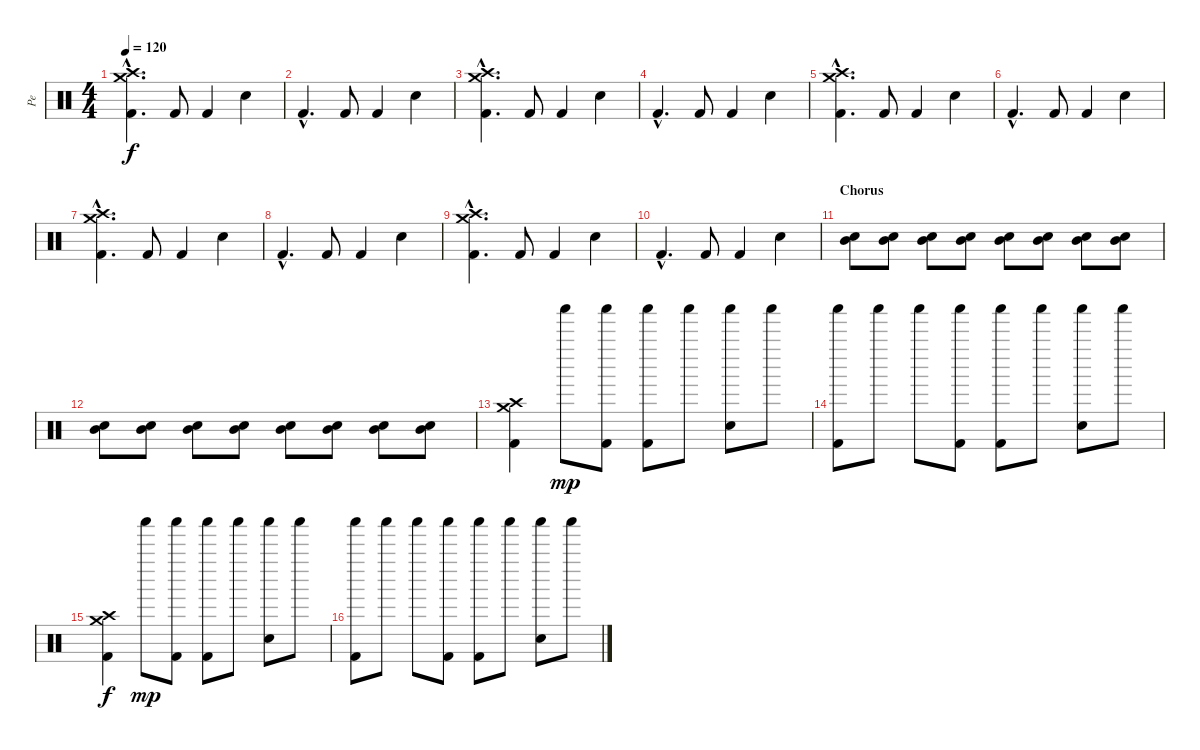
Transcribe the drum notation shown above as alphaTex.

\track ("Pe" "Pe") {instrument percussion}
\staff {score}
\articulation defaults
\ts (4 4)
\tempo 120
\clef neutral
\ks c
("Crash high (hit)"{hac} "Crash medium (hit)"{hac} "Kick (hit) 2"{hac}).4{d dy f} "Kick (hit) 2".8 "Kick (hit) 2".4 "Electric Snare (hit)".4 |
"Kick (hit) 2"{hac}.4{d} "Kick (hit) 2".8 "Kick (hit) 2".4 "Electric Snare (hit)".4 |
("Crash high (hit)"{hac} "Crash medium (hit)"{hac} "Kick (hit) 2"{hac}).4{d} "Kick (hit) 2".8 "Kick (hit) 2".4 "Electric Snare (hit)".4 |
"Kick (hit) 2"{hac}.4{d} "Kick (hit) 2".8 "Kick (hit) 2".4 "Electric Snare (hit)".4 |
("Crash high (hit)"{hac} "Crash medium (hit)"{hac} "Kick (hit) 2"{hac}).4{d} "Kick (hit) 2".8 "Kick (hit) 2".4 "Electric Snare (hit)".4 |
"Kick (hit) 2"{hac}.4{d} "Kick (hit) 2".8 "Kick (hit) 2".4 "Electric Snare (hit)".4 |
("Crash high (hit)"{hac} "Crash medium (hit)"{hac} "Kick (hit) 2"{hac}).4{d} "Kick (hit) 2".8 "Kick (hit) 2".4 "Electric Snare (hit)".4 |
"Kick (hit) 2"{hac}.4{d} "Kick (hit) 2".8 "Kick (hit) 2".4 "Electric Snare (hit)".4 |
("Crash high (hit)"{hac} "Crash medium (hit)"{hac} "Kick (hit) 2"{hac}).4{d} "Kick (hit) 2".8 "Kick (hit) 2".4 "Electric Snare (hit)".4 |
"Kick (hit) 2"{hac}.4{d} "Kick (hit) 2".8 "Kick (hit) 2".4 "Electric Snare (hit)".4 |
\section ("" "Chorus")
("Mid Tom (hit)" "Snare (hit) 2").8 ("Mid Tom (hit)" "Snare (hit) 2").8 ("Mid Tom (hit)" "Snare (hit) 2").8 ("Mid Tom (hit)" "Snare (hit) 2").8 ("Mid Tom (hit)" "Snare (hit) 2").8 ("Mid Tom (hit)" "Snare (hit) 2").8 ("Mid Tom (hit)" "Snare (hit) 2").8 ("Mid Tom (hit)" "Snare (hit) 2").8 |
("Mid Tom (hit)" "Snare (hit) 2").8 ("Mid Tom (hit)" "Snare (hit) 2").8 ("Mid Tom (hit)" "Snare (hit) 2").8 ("Mid Tom (hit)" "Snare (hit) 2").8 ("Mid Tom (hit)" "Snare (hit) 2").8 ("Mid Tom (hit)" "Snare (hit) 2").8 ("Mid Tom (hit)" "Snare (hit) 2").8 ("Mid Tom (hit)" "Snare (hit) 2").8 |
("Crash high (hit)" "Crash medium (hit)" "Kick (hit) 2").4 "Shaker (hit)".8{dy mp} ("Shaker (hit)" "Kick (hit) 2").8 ("Shaker (hit)" "Kick (hit) 2").8 "Shaker (hit)".8 ("Shaker (hit)" "Electric Snare (hit)").8 "Shaker (hit)".8 |
("Shaker (hit)" "Kick (hit) 2").8 "Shaker (hit)".8 "Shaker (hit)".8 ("Shaker (hit)" "Kick (hit) 2").8 ("Shaker (hit)" "Kick (hit) 2").8 "Shaker (hit)".8 ("Shaker (hit)" "Electric Snare (hit)").8 "Shaker (hit)".8 |
("Crash high (hit)" "Crash medium (hit)" "Kick (hit) 2").4{dy f} "Shaker (hit)".8{dy mp} ("Shaker (hit)" "Kick (hit) 2").8 ("Shaker (hit)" "Kick (hit) 2").8 "Shaker (hit)".8 ("Shaker (hit)" "Electric Snare (hit)").8 "Shaker (hit)".8 |
("Shaker (hit)" "Kick (hit) 2").8 "Shaker (hit)".8 "Shaker (hit)".8 ("Shaker (hit)" "Kick (hit) 2").8 ("Shaker (hit)" "Kick (hit) 2").8 "Shaker (hit)".8 ("Shaker (hit)" "Electric Snare (hit)").8 "Shaker (hit)".8
